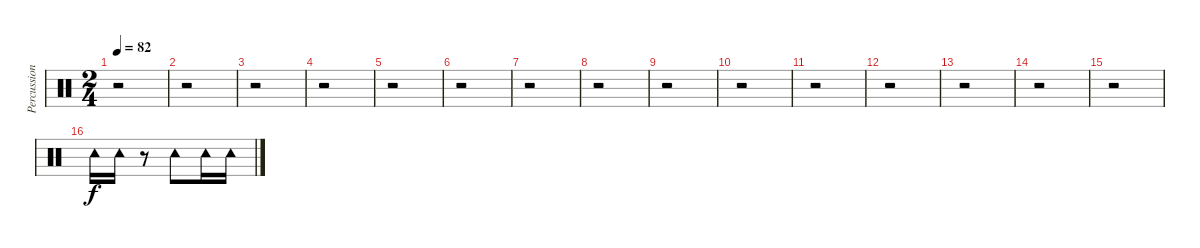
\track ("Percussions" "Percussion") {instrument percussion}
\staff {score}
\articulation defaults
\ts (2 4)
\tempo 82
\clef neutral
\ks c
r.2{dy f} |
r.2 |
r.2 |
r.2 |
r.2 |
r.2 |
r.2 |
r.2 |
r.2 |
r.2 |
r.2 |
r.2 |
r.2 |
r.2 |
r.2 |
"Tambourine (hit)".16 "Tambourine (hit)".16 r.8 "Tambourine (hit)".8 "Tambourine (hit)".16 "Tambourine (hit)".16
